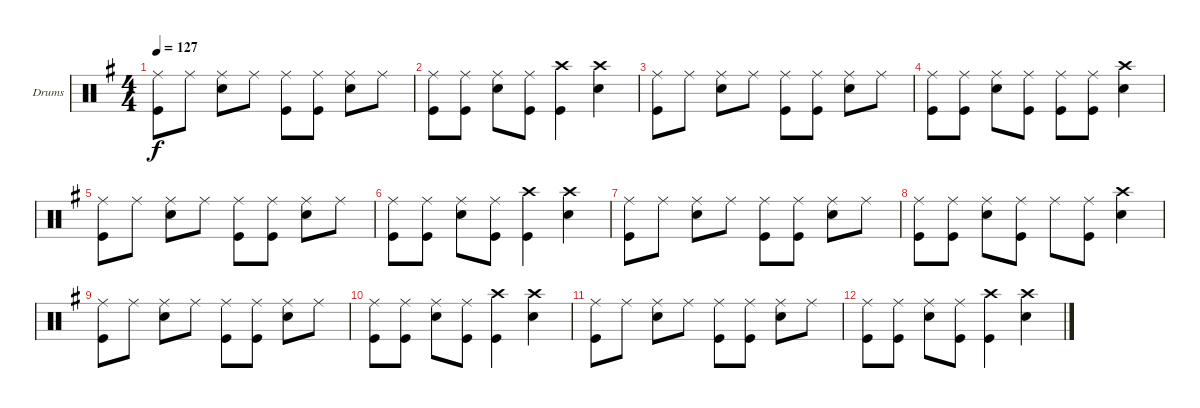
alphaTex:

\bracketExtendMode groupsimilarinstruments
\firstSystemTrackNameOrientation horizontal
\otherSystemsTrackNameOrientation horizontal
\track ("Drumkit" "Drums") {instrument percussion}
\staff {score}
\articulation defaults
\ts (4 4)
\tempo 127
\clef neutral
\ks eminor
("Kick (hit)" "Ride (middle)").8{dy f} "Ride (middle)".8 ("Ride (middle)" "Snare (hit) 2").8 "Ride (middle)".8 ("Kick (hit)" "Ride (middle)").8 ("Ride (middle)" "Kick (hit)").8 ("Ride (middle)" "Snare (hit) 2").8 "Ride (middle)".8 |
("Kick (hit)" "Ride (middle)").8 ("Ride (middle)" "Kick (hit)").8 ("Ride (middle)" "Snare (hit) 2").8 ("Ride (middle)" "Kick (hit)").8 ("Kick (hit)" "Crash high (hit)").4 ("Snare (hit) 2" "Crash high (hit)").4 |
("Kick (hit)" "Ride (middle)").8 "Ride (middle)".8 ("Ride (middle)" "Snare (hit) 2").8 "Ride (middle)".8 ("Kick (hit)" "Ride (middle)").8 ("Ride (middle)" "Kick (hit)").8 ("Ride (middle)" "Snare (hit) 2").8 "Ride (middle)".8 |
("Kick (hit)" "Ride (middle)").8 ("Ride (middle)" "Kick (hit)").8 ("Ride (middle)" "Snare (hit) 2").8 ("Ride (middle)" "Kick (hit)").8 ("Ride (middle)" "Kick (hit)").8 ("Ride (middle)" "Kick (hit)").8 ("Snare (hit) 2" "Crash high (hit)").4 |
("Kick (hit)" "Ride (middle)").8 "Ride (middle)".8 ("Ride (middle)" "Snare (hit) 2").8 "Ride (middle)".8 ("Kick (hit)" "Ride (middle)").8 ("Ride (middle)" "Kick (hit)").8 ("Ride (middle)" "Snare (hit) 2").8 "Ride (middle)".8 |
("Kick (hit)" "Ride (middle)").8 ("Ride (middle)" "Kick (hit)").8 ("Ride (middle)" "Snare (hit) 2").8 ("Ride (middle)" "Kick (hit)").8 ("Kick (hit)" "Crash high (hit)").4 ("Snare (hit) 2" "Crash high (hit)").4 |
("Kick (hit)" "Ride (middle)").8 "Ride (middle)".8 ("Ride (middle)" "Snare (hit) 2").8 "Ride (middle)".8 ("Kick (hit)" "Ride (middle)").8 ("Ride (middle)" "Kick (hit)").8 ("Ride (middle)" "Snare (hit) 2").8 "Ride (middle)".8 |
("Kick (hit)" "Ride (middle)").8 ("Ride (middle)" "Kick (hit)").8 ("Ride (middle)" "Snare (hit) 2").8 ("Ride (middle)" "Kick (hit)").8 "Ride (middle)".8 ("Ride (middle)" "Kick (hit)").8 ("Snare (hit) 2" "Crash high (hit)").4 |
("Kick (hit)" "Ride (middle)").8 "Ride (middle)".8 ("Ride (middle)" "Snare (hit) 2").8 "Ride (middle)".8 ("Kick (hit)" "Ride (middle)").8 ("Ride (middle)" "Kick (hit)").8 ("Ride (middle)" "Snare (hit) 2").8 "Ride (middle)".8 |
("Kick (hit)" "Ride (middle)").8 ("Ride (middle)" "Kick (hit)").8 ("Ride (middle)" "Snare (hit) 2").8 ("Ride (middle)" "Kick (hit)").8 ("Kick (hit)" "Crash high (hit)").4 ("Snare (hit) 2" "Crash high (hit)").4 |
("Kick (hit)" "Ride (middle)").8 "Ride (middle)".8 ("Ride (middle)" "Snare (hit) 2").8 "Ride (middle)".8 ("Kick (hit)" "Ride (middle)").8 ("Ride (middle)" "Kick (hit)").8 ("Ride (middle)" "Snare (hit) 2").8 "Ride (middle)".8 |
("Kick (hit)" "Ride (middle)").8 ("Ride (middle)" "Kick (hit)").8 ("Ride (middle)" "Snare (hit) 2").8 ("Ride (middle)" "Kick (hit)").8 ("Kick (hit)" "Crash high (hit)").4 ("Snare (hit) 2" "Crash high (hit)").4
